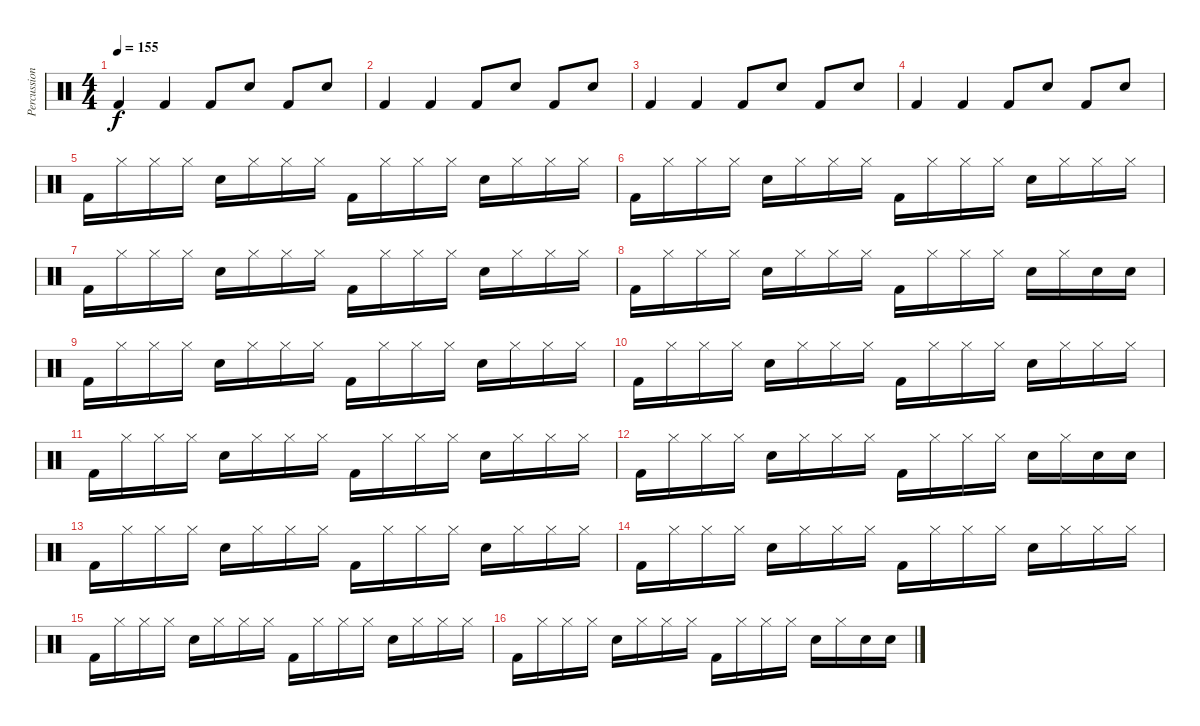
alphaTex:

\track ("Percussion" "Percussion") {instrument percussion}
\staff {score}
\articulation defaults
\ts (4 4)
\tempo 155
\clef neutral
\ks c "Kick (hit) 2".4{dy f} "Kick (hit) 2".4 "Kick (hit) 2".8 "Snare (hit) 2".8 "Kick (hit) 2".8 "Snare (hit) 2".8
|
"Kick (hit) 2".4 "Kick (hit) 2".4 "Kick (hit) 2".8 "Snare (hit) 2".8 "Kick (hit) 2".8 "Snare (hit) 2".8 |
"Kick (hit) 2".4 "Kick (hit) 2".4 "Kick (hit) 2".8 "Snare (hit) 2".8 "Kick (hit) 2".8 "Snare (hit) 2".8 |
"Kick (hit) 2".4 "Kick (hit) 2".4 "Kick (hit) 2".8 "Snare (hit) 2".8 "Kick (hit) 2".8 "Snare (hit) 2".8 |
"Kick (hit) 2".16 "Hi-Hat (closed)".16 "Hi-Hat (closed)".16 "Hi-Hat (closed)".16 "Snare (hit) 2".16 "Hi-Hat (closed)".16 "Hi-Hat (closed)".16 "Hi-Hat (closed)".16 "Kick (hit) 2".16 "Hi-Hat (closed)".16 "Hi-Hat (closed)".16 "Hi-Hat (closed)".16 "Snare (hit) 2".16 "Hi-Hat (closed)".16 "Hi-Hat (closed)".16 "Hi-Hat (closed)".16 |
"Kick (hit) 2".16 "Hi-Hat (closed)".16 "Hi-Hat (closed)".16 "Hi-Hat (closed)".16 "Snare (hit) 2".16 "Hi-Hat (closed)".16 "Hi-Hat (closed)".16 "Hi-Hat (closed)".16 "Kick (hit) 2".16 "Hi-Hat (closed)".16 "Hi-Hat (closed)".16 "Hi-Hat (closed)".16 "Snare (hit) 2".16 "Hi-Hat (closed)".16 "Hi-Hat (closed)".16 "Hi-Hat (closed)".16 |
"Kick (hit) 2".16 "Hi-Hat (closed)".16 "Hi-Hat (closed)".16 "Hi-Hat (closed)".16 "Snare (hit) 2".16 "Hi-Hat (closed)".16 "Hi-Hat (closed)".16 "Hi-Hat (closed)".16 "Kick (hit) 2".16 "Hi-Hat (closed)".16 "Hi-Hat (closed)".16 "Hi-Hat (closed)".16 "Snare (hit) 2".16 "Hi-Hat (closed)".16 "Hi-Hat (closed)".16 "Hi-Hat (closed)".16 |
"Kick (hit) 2".16 "Hi-Hat (closed)".16 "Hi-Hat (closed)".16 "Hi-Hat (closed)".16 "Snare (hit) 2".16 "Hi-Hat (closed)".16 "Hi-Hat (closed)".16 "Hi-Hat (closed)".16 "Kick (hit) 2".16 "Hi-Hat (closed)".16 "Hi-Hat (closed)".16 "Hi-Hat (closed)".16 "Snare (hit) 2".16 "Hi-Hat (closed)".16 "Snare (hit) 2".16 "Snare (hit) 2".16 |
"Kick (hit) 2".16 "Hi-Hat (closed)".16 "Hi-Hat (closed)".16 "Hi-Hat (closed)".16 "Snare (hit) 2".16 "Hi-Hat (closed)".16 "Hi-Hat (closed)".16 "Hi-Hat (closed)".16 "Kick (hit) 2".16 "Hi-Hat (closed)".16 "Hi-Hat (closed)".16 "Hi-Hat (closed)".16 "Snare (hit) 2".16 "Hi-Hat (closed)".16 "Hi-Hat (closed)".16 "Hi-Hat (closed)".16 |
"Kick (hit) 2".16 "Hi-Hat (closed)".16 "Hi-Hat (closed)".16 "Hi-Hat (closed)".16 "Snare (hit) 2".16 "Hi-Hat (closed)".16 "Hi-Hat (closed)".16 "Hi-Hat (closed)".16 "Kick (hit) 2".16 "Hi-Hat (closed)".16 "Hi-Hat (closed)".16 "Hi-Hat (closed)".16 "Snare (hit) 2".16 "Hi-Hat (closed)".16 "Hi-Hat (closed)".16 "Hi-Hat (closed)".16 |
"Kick (hit) 2".16 "Hi-Hat (closed)".16 "Hi-Hat (closed)".16 "Hi-Hat (closed)".16 "Snare (hit) 2".16 "Hi-Hat (closed)".16 "Hi-Hat (closed)".16 "Hi-Hat (closed)".16 "Kick (hit) 2".16 "Hi-Hat (closed)".16 "Hi-Hat (closed)".16 "Hi-Hat (closed)".16 "Snare (hit) 2".16 "Hi-Hat (closed)".16 "Hi-Hat (closed)".16 "Hi-Hat (closed)".16 |
"Kick (hit) 2".16 "Hi-Hat (closed)".16 "Hi-Hat (closed)".16 "Hi-Hat (closed)".16 "Snare (hit) 2".16 "Hi-Hat (closed)".16 "Hi-Hat (closed)".16 "Hi-Hat (closed)".16 "Kick (hit) 2".16 "Hi-Hat (closed)".16 "Hi-Hat (closed)".16 "Hi-Hat (closed)".16 "Snare (hit) 2".16 "Hi-Hat (closed)".16 "Snare (hit) 2".16 "Snare (hit) 2".16 |
"Kick (hit) 2".16 "Hi-Hat (closed)".16 "Hi-Hat (closed)".16 "Hi-Hat (closed)".16 "Snare (hit) 2".16 "Hi-Hat (closed)".16 "Hi-Hat (closed)".16 "Hi-Hat (closed)".16 "Kick (hit) 2".16 "Hi-Hat (closed)".16 "Hi-Hat (closed)".16 "Hi-Hat (closed)".16 "Snare (hit) 2".16 "Hi-Hat (closed)".16 "Hi-Hat (closed)".16 "Hi-Hat (closed)".16 |
"Kick (hit) 2".16 "Hi-Hat (closed)".16 "Hi-Hat (closed)".16 "Hi-Hat (closed)".16 "Snare (hit) 2".16 "Hi-Hat (closed)".16 "Hi-Hat (closed)".16 "Hi-Hat (closed)".16 "Kick (hit) 2".16 "Hi-Hat (closed)".16 "Hi-Hat (closed)".16 "Hi-Hat (closed)".16 "Snare (hit) 2".16 "Hi-Hat (closed)".16 "Hi-Hat (closed)".16 "Hi-Hat (closed)".16 |
"Kick (hit) 2".16 "Hi-Hat (closed)".16 "Hi-Hat (closed)".16 "Hi-Hat (closed)".16 "Snare (hit) 2".16 "Hi-Hat (closed)".16 "Hi-Hat (closed)".16 "Hi-Hat (closed)".16 "Kick (hit) 2".16 "Hi-Hat (closed)".16 "Hi-Hat (closed)".16 "Hi-Hat (closed)".16 "Snare (hit) 2".16 "Hi-Hat (closed)".16 "Hi-Hat (closed)".16 "Hi-Hat (closed)".16 |
"Kick (hit) 2".16 "Hi-Hat (closed)".16 "Hi-Hat (closed)".16 "Hi-Hat (closed)".16 "Snare (hit) 2".16 "Hi-Hat (closed)".16 "Hi-Hat (closed)".16 "Hi-Hat (closed)".16 "Kick (hit) 2".16 "Hi-Hat (closed)".16 "Hi-Hat (closed)".16 "Hi-Hat (closed)".16 "Snare (hit) 2".16 "Hi-Hat (closed)".16 "Snare (hit) 2".16 "Snare (hit) 2".16
